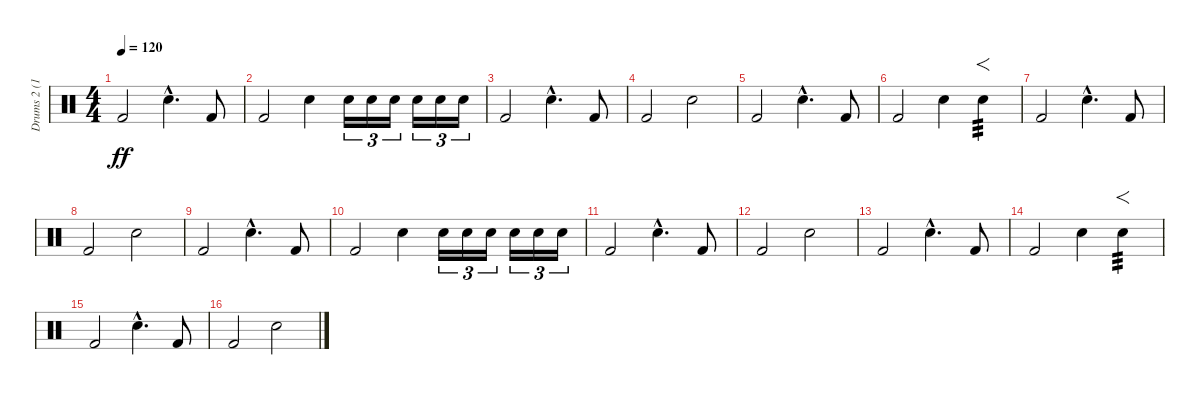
\track ("Drums 2 (16)" "Drums 2 (1") {instrument percussion}
\staff {score}
\articulation defaults
\ts (4 4)
\tempo 120
\clef neutral
\ks c "Kick (hit) 2".2{dy ff} "Snare (hit) 2"{hac}.4{d} "Kick (hit) 2".8
|
"Kick (hit) 2".2 "Snare (hit) 2".4 "Snare (hit) 2".16{tu (3 2)} "Snare (hit) 2".16{tu (3 2)} "Snare (hit) 2".16{tu (3 2)} "Snare (hit) 2".16{tu (3 2)} "Snare (hit) 2".16{tu (3 2)} "Snare (hit) 2".16{tu (3 2)} |
"Kick (hit) 2".2 "Snare (hit) 2"{hac}.4{d} "Kick (hit) 2".8 |
"Kick (hit) 2".2 "Snare (hit) 2".2 |
"Kick (hit) 2".2 "Snare (hit) 2"{hac}.4{d} "Kick (hit) 2".8 |
"Kick (hit) 2".2 "Snare (hit) 2".4 "Snare (hit) 2".4{f tp 3} |
"Kick (hit) 2".2 "Snare (hit) 2"{hac}.4{d} "Kick (hit) 2".8 |
"Kick (hit) 2".2 "Snare (hit) 2".2 |
"Kick (hit) 2".2 "Snare (hit) 2"{hac}.4{d} "Kick (hit) 2".8 |
"Kick (hit) 2".2 "Snare (hit) 2".4 "Snare (hit) 2".16{tu (3 2)} "Snare (hit) 2".16{tu (3 2)} "Snare (hit) 2".16{tu (3 2)} "Snare (hit) 2".16{tu (3 2)} "Snare (hit) 2".16{tu (3 2)} "Snare (hit) 2".16{tu (3 2)} |
"Kick (hit) 2".2 "Snare (hit) 2"{hac}.4{d} "Kick (hit) 2".8 |
"Kick (hit) 2".2 "Snare (hit) 2".2 |
"Kick (hit) 2".2 "Snare (hit) 2"{hac}.4{d} "Kick (hit) 2".8 |
"Kick (hit) 2".2 "Snare (hit) 2".4 "Snare (hit) 2".4{f tp 3} |
"Kick (hit) 2".2 "Snare (hit) 2"{hac}.4{d} "Kick (hit) 2".8 |
"Kick (hit) 2".2 "Snare (hit) 2".2
